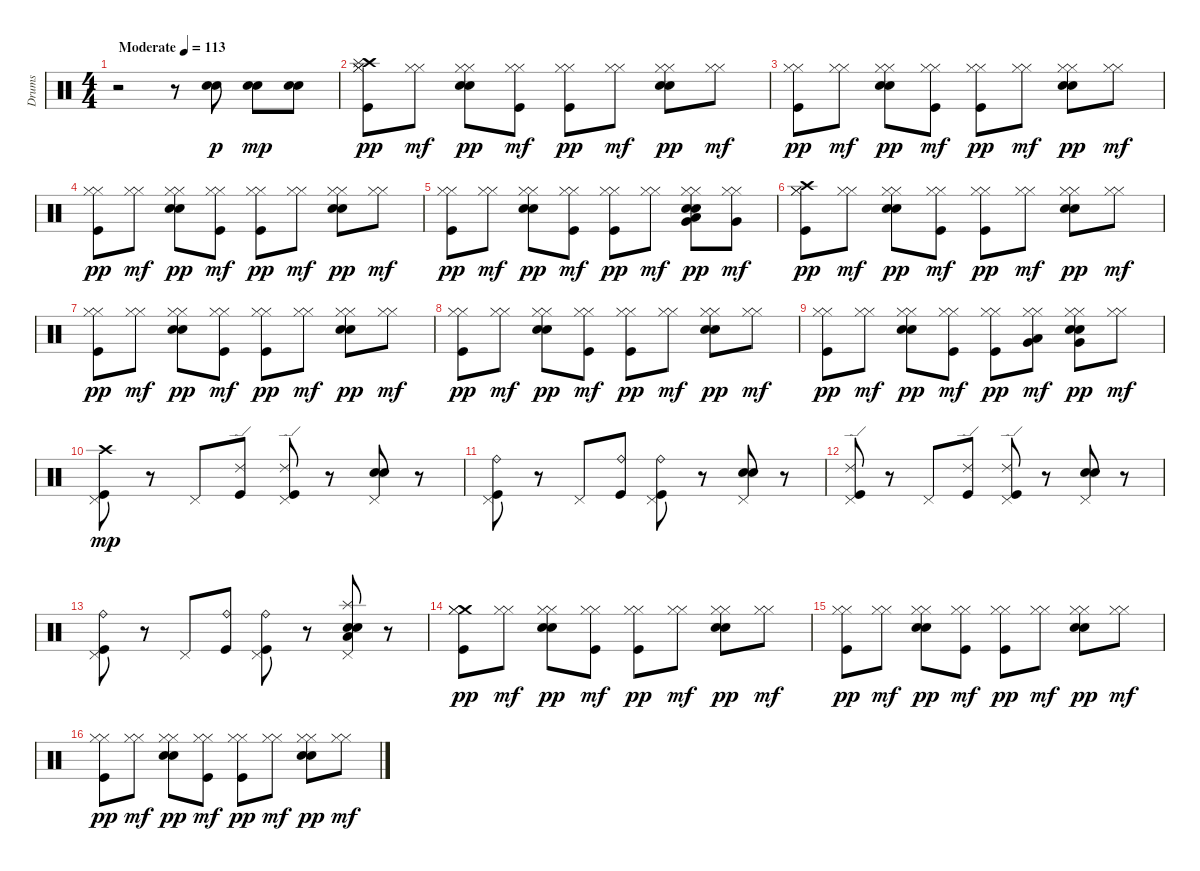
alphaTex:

\track ("Drums" "Drums") {instrument percussion}
\staff {score}
\articulation defaults
\ts (4 4)
\tempo (113 "Moderate")
\clef neutral
\ks c
r.2{dy p} r.8 ("Snare (hit) 2" "Electric Snare (hit)").8 ("Snare (hit) 2" "Electric Snare (hit)").8{dy mp} ("Snare (hit) 2" "Electric Snare (hit)").8 |
("Crash high (hit)" "Splash (hit)" "Kick (hit)" "Hi-Hat (closed)" "Hi-Hat (closed)").8{dy pp} ("Hi-Hat (closed)" "Hi-Hat (closed)").8{dy mf} ("Snare (hit) 2" "Electric Snare (hit)" "Hi-Hat (closed)" "Hi-Hat (closed)").8{dy pp} ("Kick (hit)" "Hi-Hat (closed)" "Hi-Hat (closed)").8{dy mf} ("Kick (hit)" "Hi-Hat (closed)" "Hi-Hat (closed)").8{dy pp} ("Hi-Hat (closed)" "Hi-Hat (closed)").8{dy mf} ("Snare (hit) 2" "Electric Snare (hit)" "Hi-Hat (closed)" "Hi-Hat (closed)").8{dy pp} ("Hi-Hat (closed)" "Hi-Hat (closed)").8{dy mf} |
("Kick (hit)" "Hi-Hat (closed)" "Hi-Hat (closed)").8{dy pp} ("Hi-Hat (closed)" "Hi-Hat (closed)").8{dy mf} ("Snare (hit) 2" "Electric Snare (hit)" "Hi-Hat (closed)" "Hi-Hat (closed)").8{dy pp} ("Kick (hit)" "Hi-Hat (closed)" "Hi-Hat (closed)").8{dy mf} ("Kick (hit)" "Hi-Hat (closed)" "Hi-Hat (closed)").8{dy pp} ("Hi-Hat (closed)" "Hi-Hat (closed)").8{dy mf} ("Snare (hit) 2" "Electric Snare (hit)" "Hi-Hat (closed)" "Hi-Hat (closed)").8{dy pp} ("Hi-Hat (closed)" "Hi-Hat (closed)").8{dy mf} |
("Kick (hit)" "Hi-Hat (closed)" "Hi-Hat (closed)").8{dy pp} ("Hi-Hat (closed)" "Hi-Hat (closed)").8{dy mf} ("Snare (hit) 2" "Electric Snare (hit)" "Hi-Hat (closed)" "Hi-Hat (closed)").8{dy pp} ("Kick (hit)" "Hi-Hat (closed)" "Hi-Hat (closed)").8{dy mf} ("Kick (hit)" "Hi-Hat (closed)" "Hi-Hat (closed)").8{dy pp} ("Hi-Hat (closed)" "Hi-Hat (closed)").8{dy mf} ("Snare (hit) 2" "Electric Snare (hit)" "Hi-Hat (closed)" "Hi-Hat (closed)").8{dy pp} ("Hi-Hat (closed)" "Hi-Hat (closed)").8{dy mf} |
("Kick (hit)" "Hi-Hat (closed)" "Hi-Hat (closed)").8{dy pp} ("Hi-Hat (closed)" "Hi-Hat (closed)").8{dy mf} ("Snare (hit) 2" "Electric Snare (hit)" "Hi-Hat (closed)" "Hi-Hat (closed)").8{dy pp} ("Kick (hit)" "Hi-Hat (closed)" "Hi-Hat (closed)").8{dy mf} ("Kick (hit)" "Hi-Hat (closed)" "Hi-Hat (closed)").8{dy pp} ("Hi-Hat (closed)" "Hi-Hat (closed)").8{dy mf} ("Very Low Tom (hit)" "Snare (hit) 2" "Electric Snare (hit)" "Hi-Hat (closed)" "Low Tom (hit)" "Hi-Hat (closed)").8{dy pp} ("Very Low Tom (hit)" "Hi-Hat (closed)" "Hi-Hat (closed)").8{dy mf} |
("Crash high (hit)" "Kick (hit)" "Hi-Hat (closed)" "Hi-Hat (closed)").8{dy pp} ("Hi-Hat (closed)" "Hi-Hat (closed)").8{dy mf} ("Snare (hit) 2" "Electric Snare (hit)" "Hi-Hat (closed)" "Hi-Hat (closed)").8{dy pp} ("Kick (hit)" "Hi-Hat (closed)" "Hi-Hat (closed)").8{dy mf} ("Kick (hit)" "Hi-Hat (closed)" "Hi-Hat (closed)").8{dy pp} ("Hi-Hat (closed)" "Hi-Hat (closed)").8{dy mf} ("Snare (hit) 2" "Electric Snare (hit)" "Hi-Hat (closed)" "Hi-Hat (closed)").8{dy pp} ("Hi-Hat (closed)" "Hi-Hat (closed)").8{dy mf} |
("Kick (hit)" "Hi-Hat (closed)" "Hi-Hat (closed)").8{dy pp} ("Hi-Hat (closed)" "Hi-Hat (closed)").8{dy mf} ("Snare (hit) 2" "Electric Snare (hit)" "Hi-Hat (closed)" "Hi-Hat (closed)").8{dy pp} ("Kick (hit)" "Hi-Hat (closed)" "Hi-Hat (closed)").8{dy mf} ("Kick (hit)" "Hi-Hat (closed)" "Hi-Hat (closed)").8{dy pp} ("Hi-Hat (closed)" "Hi-Hat (closed)").8{dy mf} ("Snare (hit) 2" "Electric Snare (hit)" "Hi-Hat (closed)" "Hi-Hat (closed)").8{dy pp} ("Hi-Hat (closed)" "Hi-Hat (closed)").8{dy mf} |
("Kick (hit)" "Hi-Hat (closed)" "Hi-Hat (closed)").8{dy pp} ("Hi-Hat (closed)" "Hi-Hat (closed)").8{dy mf} ("Snare (hit) 2" "Electric Snare (hit)" "Hi-Hat (closed)" "Hi-Hat (closed)").8{dy pp} ("Kick (hit)" "Hi-Hat (closed)" "Hi-Hat (closed)").8{dy mf} ("Kick (hit)" "Hi-Hat (closed)" "Hi-Hat (closed)").8{dy pp} ("Hi-Hat (closed)" "Hi-Hat (closed)").8{dy mf} ("Snare (hit) 2" "Electric Snare (hit)" "Hi-Hat (closed)" "Hi-Hat (closed)").8{dy pp} ("Hi-Hat (closed)" "Hi-Hat (closed)").8{dy mf} |
("Kick (hit)" "Hi-Hat (closed)" "Hi-Hat (closed)").8{dy pp} ("Hi-Hat (closed)" "Hi-Hat (closed)").8{dy mf} ("Snare (hit) 2" "Electric Snare (hit)" "Hi-Hat (closed)" "Hi-Hat (closed)").8{dy pp} ("Kick (hit)" "Hi-Hat (closed)" "Hi-Hat (closed)").8{dy mf} ("Kick (hit)" "Hi-Hat (closed)" "Hi-Hat (closed)").8{dy pp} ("Very Low Tom (hit)" "Low Tom (hit)" "Hi-Hat (closed)" "Hi-Hat (closed)").8{dy mf} ("Very Low Tom (hit)" "Snare (hit) 2" "Electric Snare (hit)" "Hi-Hat (closed)" "Hi-Hat (closed)").8{dy pp} ("Hi-Hat (closed)" "Hi-Hat (closed)").8{dy mf} |
("Crash high (hit)" "Kick (hit)" "Pedal Hi-Hat (hit)").8{dy mp} r.8 "Pedal Hi-Hat (hit)".8 ("Ride (edge) 2" "Kick (hit)").8 ("Ride (edge) 2" "Kick (hit)" "Pedal Hi-Hat (hit)").8 r.8 ("Snare (hit) 2" "Electric Snare (hit)" "Pedal Hi-Hat (hit)").8 r.8 |
("Ride (bell)" "Kick (hit)" "Pedal Hi-Hat (hit)").8 r.8 "Pedal Hi-Hat (hit)".8 ("Ride (bell)" "Kick (hit)").8 ("Ride (bell)" "Kick (hit)" "Pedal Hi-Hat (hit)").8 r.8 ("Snare (hit) 2" "Electric Snare (hit)" "Pedal Hi-Hat (hit)").8 r.8 |
("Ride (edge) 2" "Kick (hit)" "Pedal Hi-Hat (hit)").8 r.8 "Pedal Hi-Hat (hit)".8 ("Ride (edge) 2" "Kick (hit)").8 ("Ride (edge) 2" "Kick (hit)" "Pedal Hi-Hat (hit)").8 r.8 ("Snare (hit) 2" "Electric Snare (hit)" "Pedal Hi-Hat (hit)").8 r.8 |
("Ride (bell)" "Kick (hit)" "Pedal Hi-Hat (hit)").8 r.8 "Pedal Hi-Hat (hit)".8 ("Ride (bell)" "Kick (hit)").8 ("Ride (bell)" "Kick (hit)" "Pedal Hi-Hat (hit)").8 r.8 ("Low Tom (hit)" "Splash (hit)" "Snare (hit) 2" "Electric Snare (hit)" "Pedal Hi-Hat (hit)").8 r.8 |
("Crash medium (hit)" "Kick (hit)" "Hi-Hat (closed)" "Hi-Hat (closed)").8{dy pp} ("Hi-Hat (closed)" "Hi-Hat (closed)").8{dy mf} ("Snare (hit) 2" "Electric Snare (hit)" "Hi-Hat (closed)" "Hi-Hat (closed)").8{dy pp} ("Kick (hit)" "Hi-Hat (closed)" "Hi-Hat (closed)").8{dy mf} ("Kick (hit)" "Hi-Hat (closed)" "Hi-Hat (closed)").8{dy pp} ("Hi-Hat (closed)" "Hi-Hat (closed)").8{dy mf} ("Snare (hit) 2" "Electric Snare (hit)" "Hi-Hat (closed)" "Hi-Hat (closed)").8{dy pp} ("Hi-Hat (closed)" "Hi-Hat (closed)").8{dy mf} |
("Kick (hit)" "Hi-Hat (closed)" "Hi-Hat (closed)").8{dy pp} ("Hi-Hat (closed)" "Hi-Hat (closed)").8{dy mf} ("Snare (hit) 2" "Electric Snare (hit)" "Hi-Hat (closed)" "Hi-Hat (closed)").8{dy pp} ("Kick (hit)" "Hi-Hat (closed)" "Hi-Hat (closed)").8{dy mf} ("Kick (hit)" "Hi-Hat (closed)" "Hi-Hat (closed)").8{dy pp} ("Hi-Hat (closed)" "Hi-Hat (closed)").8{dy mf} ("Snare (hit) 2" "Electric Snare (hit)" "Hi-Hat (closed)" "Hi-Hat (closed)").8{dy pp} ("Hi-Hat (closed)" "Hi-Hat (closed)").8{dy mf} |
("Kick (hit)" "Hi-Hat (closed)" "Hi-Hat (closed)").8{dy pp} ("Hi-Hat (closed)" "Hi-Hat (closed)").8{dy mf} ("Snare (hit) 2" "Electric Snare (hit)" "Hi-Hat (closed)" "Hi-Hat (closed)").8{dy pp} ("Kick (hit)" "Hi-Hat (closed)" "Hi-Hat (closed)").8{dy mf} ("Kick (hit)" "Hi-Hat (closed)" "Hi-Hat (closed)").8{dy pp} ("Hi-Hat (closed)" "Hi-Hat (closed)").8{dy mf} ("Snare (hit) 2" "Electric Snare (hit)" "Hi-Hat (closed)" "Hi-Hat (closed)").8{dy pp} ("Hi-Hat (closed)" "Hi-Hat (closed)").8{dy mf}
